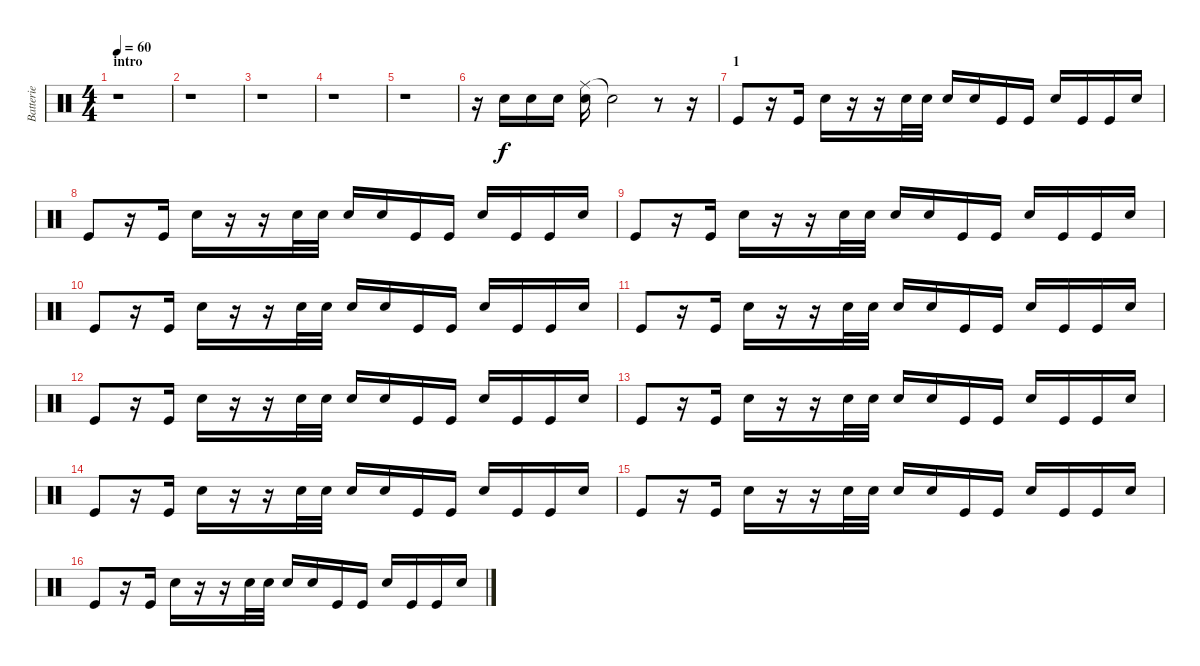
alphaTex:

\track ("Batterie" "Batterie") {instrument percussion}
\staff {score}
\articulation defaults
\ts (4 4)
\section ("" "intro")
\tempo 60
\clef neutral
\ks c
r.1{dy f} |
r.1 |
r.1 |
r.1 |
r.1 |
r.16 "Electric Snare (hit)".16 "Electric Snare (hit)".16 "Snare (hit) 2".16 ("Ride (middle)" "Electric Snare (hit)").16 "Snare (hit)"{t}.2 r.8 r.16 |
\section ("" "1")
"Kick (hit)".8 r.16 "Kick (hit)".16 "Snare (hit) 2".16 r.16 r.16 "Snare (hit) 2".32 "Snare (hit) 2".32 "Snare (hit) 2".16 "Electric Snare (hit)".16 "Kick (hit)".16 "Kick (hit)".16 "Snare (hit) 2".16 "Kick (hit)".16 "Kick (hit)".16 "Snare (hit) 2".16 |
"Kick (hit)".8 r.16 "Kick (hit)".16 "Snare (hit) 2".16 r.16 r.16 "Snare (hit) 2".32 "Snare (hit) 2".32 "Snare (hit) 2".16 "Electric Snare (hit)".16 "Kick (hit)".16 "Kick (hit)".16 "Snare (hit) 2".16 "Kick (hit)".16 "Kick (hit)".16 "Snare (hit) 2".16 |
"Kick (hit)".8 r.16 "Kick (hit)".16 "Snare (hit) 2".16 r.16 r.16 "Snare (hit) 2".32 "Snare (hit) 2".32 "Snare (hit) 2".16 "Electric Snare (hit)".16 "Kick (hit)".16 "Kick (hit)".16 "Snare (hit) 2".16 "Kick (hit)".16 "Kick (hit)".16 "Snare (hit) 2".16 |
"Kick (hit)".8 r.16 "Kick (hit)".16 "Snare (hit) 2".16 r.16 r.16 "Snare (hit) 2".32 "Snare (hit) 2".32 "Snare (hit) 2".16 "Electric Snare (hit)".16 "Kick (hit)".16 "Kick (hit)".16 "Snare (hit) 2".16 "Kick (hit)".16 "Kick (hit)".16 "Snare (hit) 2".16 |
"Kick (hit)".8 r.16 "Kick (hit)".16 "Snare (hit) 2".16 r.16 r.16 "Snare (hit) 2".32 "Snare (hit) 2".32 "Snare (hit) 2".16 "Electric Snare (hit)".16 "Kick (hit)".16 "Kick (hit)".16 "Snare (hit) 2".16 "Kick (hit)".16 "Kick (hit)".16 "Snare (hit) 2".16 |
"Kick (hit)".8 r.16 "Kick (hit)".16 "Snare (hit) 2".16 r.16 r.16 "Snare (hit) 2".32 "Snare (hit) 2".32 "Snare (hit) 2".16 "Electric Snare (hit)".16 "Kick (hit)".16 "Kick (hit)".16 "Snare (hit) 2".16 "Kick (hit)".16 "Kick (hit)".16 "Snare (hit) 2".16 |
"Kick (hit)".8 r.16 "Kick (hit)".16 "Snare (hit) 2".16 r.16 r.16 "Snare (hit) 2".32 "Snare (hit) 2".32 "Snare (hit) 2".16 "Electric Snare (hit)".16 "Kick (hit)".16 "Kick (hit)".16 "Snare (hit) 2".16 "Kick (hit)".16 "Kick (hit)".16 "Snare (hit) 2".16 |
"Kick (hit)".8 r.16 "Kick (hit)".16 "Snare (hit) 2".16 r.16 r.16 "Snare (hit) 2".32 "Snare (hit) 2".32 "Snare (hit) 2".16 "Electric Snare (hit)".16 "Kick (hit)".16 "Kick (hit)".16 "Snare (hit) 2".16 "Kick (hit)".16 "Kick (hit)".16 "Snare (hit) 2".16 |
"Kick (hit)".8 r.16 "Kick (hit)".16 "Snare (hit) 2".16 r.16 r.16 "Snare (hit) 2".32 "Snare (hit) 2".32 "Snare (hit) 2".16 "Electric Snare (hit)".16 "Kick (hit)".16 "Kick (hit)".16 "Snare (hit) 2".16 "Kick (hit)".16 "Kick (hit)".16 "Snare (hit) 2".16 |
"Kick (hit)".8 r.16 "Kick (hit)".16 "Snare (hit) 2".16 r.16 r.16 "Snare (hit) 2".32 "Snare (hit) 2".32 "Snare (hit) 2".16 "Electric Snare (hit)".16 "Kick (hit)".16 "Kick (hit)".16 "Snare (hit) 2".16 "Kick (hit)".16 "Kick (hit)".16 "Snare (hit) 2".16
